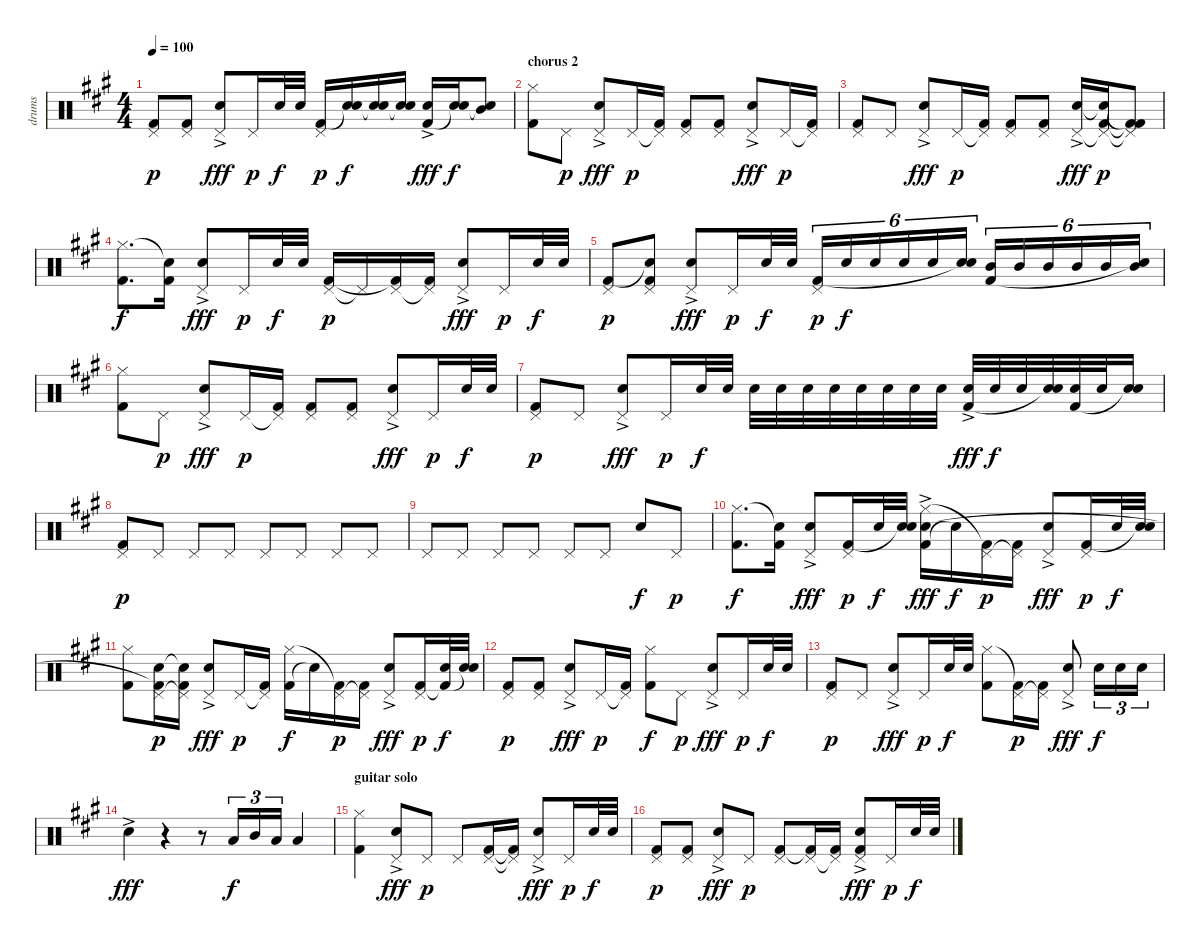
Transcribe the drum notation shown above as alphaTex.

\track ("drums" "drums") {instrument percussion}
\staff {score}
\articulation defaults
\ts (4 4)
\tempo 100
\clef neutral
\ks a
("Pedal Hi-Hat (hit)" "Kick (hit) 2").8{dy p} ("Pedal Hi-Hat (hit)" "Kick (hit) 2").8 ("Pedal Hi-Hat (hit)" "Snare (hit) 2"{ac}).8{dy fff} "Pedal Hi-Hat (hit)".16{dy p} "Snare (hit) 2".32{dy f} "Snare (hit) 2".32 ("Pedal Hi-Hat (hit)" "Kick (hit) 2").16{dy p} ("Snare (hit) 2" "Snare (hit)"{t}).16{dy f} ("Snare (hit) 2" "Snare (hit)"{t}).16 ("Snare (hit) 2" "Snare (hit)"{t}).16 ("Snare (hit) 2"{ac} "Kick (hit) 2").16{dy fff} ("Snare (hit) 2" "Snare (hit)"{t}).16{dy f} ("Mid Tom (hit)" "Snare (hit)"{t}).8 |
\section ("" "chorus 2")
("Hi-Hat (closed)" "Kick (hit) 2").8 "Pedal Hi-Hat (hit)".8{dy p} ("Pedal Hi-Hat (hit)" "Snare (hit) 2"{ac}).8{dy fff} "Pedal Hi-Hat (hit)".16{dy p} ("Pedal Hi-Hat (hit)"{t} "Kick (hit) 2").16 ("Pedal Hi-Hat (hit)" "Kick (hit) 2").8 ("Pedal Hi-Hat (hit)" "Kick (hit) 2").8 ("Pedal Hi-Hat (hit)" "Snare (hit) 2"{ac}).8{dy fff} "Pedal Hi-Hat (hit)".16{dy p} ("Pedal Hi-Hat (hit)"{t} "Kick (hit) 2").16 |
("Pedal Hi-Hat (hit)" "Kick (hit) 2").8 "Pedal Hi-Hat (hit)".8 ("Pedal Hi-Hat (hit)" "Snare (hit) 2"{ac}).8{dy fff} "Pedal Hi-Hat (hit)".16{dy p} ("Pedal Hi-Hat (hit)"{t} "Kick (hit) 2").16 ("Pedal Hi-Hat (hit)" "Kick (hit) 2").8 ("Pedal Hi-Hat (hit)" "Kick (hit) 2").8 ("Pedal Hi-Hat (hit)" "Snare (hit) 2"{ac}).16{dy fff} ("Pedal Hi-Hat (hit)"{t} "Snare (hit)"{t} "Kick (hit) 2").16{dy p} ("Pedal Hi-Hat (hit)"{t} "Kick (hit) 2"{t} "Kick (hit) 2"{t}).8 |
("Hi-Hat (closed)" "Kick (hit) 2").8{d dy f} ("Snare (hit)"{t} "Kick (hit) 2").16 ("Pedal Hi-Hat (hit)" "Snare (hit) 2"{ac}).8{dy fff} "Pedal Hi-Hat (hit)".16{dy p} "Snare (hit) 2".32{dy f} "Snare (hit) 2".32 ("Pedal Hi-Hat (hit)" "Kick (hit) 2").16{dy p} "Pedal Hi-Hat (hit)"{t}.16 ("Pedal Hi-Hat (hit)" "Kick (hit) 2"{t}).16 ("Pedal Hi-Hat (hit)"{t} "Kick (hit) 2").16 ("Pedal Hi-Hat (hit)" "Snare (hit) 2"{ac}).8{dy fff} "Pedal Hi-Hat (hit)".16{dy p} "Snare (hit) 2".32{dy f} "Snare (hit) 2".32 |
("Pedal Hi-Hat (hit)" "Kick (hit) 2").8{dy p} ("Pedal Hi-Hat (hit)" "Snare (hit)"{t} "Kick (hit) 2").8 ("Pedal Hi-Hat (hit)" "Snare (hit) 2"{ac}).8{dy fff} "Pedal Hi-Hat (hit)".16{dy p} "Snare (hit) 2".32{dy f} "Snare (hit) 2".32 ("Pedal Hi-Hat (hit)" "Kick (hit) 2").16{tu (6 4) dy p} "Snare (hit) 2".16{tu (6 4) dy f} "Snare (hit) 2".16{tu (6 4)} "Snare (hit) 2".16{tu (6 4)} "Snare (hit) 2".16{tu (6 4)} ("Snare (hit) 2" "Snare (hit)"{t}).16{tu (6 4)} ("Mid Tom (hit)" "Kick (hit) 2").16{tu (6 4)} "Mid Tom (hit)".16{tu (6 4)} "Mid Tom (hit)".16{tu (6 4)} "Mid Tom (hit)".16{tu (6 4)} "Mid Tom (hit)".16{tu (6 4)} ("Mid Tom (hit)" "Snare (hit)"{t}).16{tu (6 4)} |
("Hi-Hat (closed)" "Kick (hit) 2").8 "Pedal Hi-Hat (hit)".8{dy p} ("Pedal Hi-Hat (hit)" "Snare (hit) 2"{ac}).8{dy fff} "Pedal Hi-Hat (hit)".16{dy p} ("Pedal Hi-Hat (hit)"{t} "Kick (hit) 2").16 ("Pedal Hi-Hat (hit)" "Kick (hit) 2").8 ("Pedal Hi-Hat (hit)" "Kick (hit) 2").8 ("Pedal Hi-Hat (hit)" "Snare (hit) 2"{ac}).8{dy fff} "Pedal Hi-Hat (hit)".16{dy p} "Snare (hit) 2".32{dy f} "Snare (hit) 2".32 |
("Pedal Hi-Hat (hit)" "Kick (hit) 2").8{dy p} "Pedal Hi-Hat (hit)".8 ("Pedal Hi-Hat (hit)" "Snare (hit) 2"{ac}).8{dy fff} "Pedal Hi-Hat (hit)".16{dy p} "Snare (hit) 2".32{dy f} "Snare (hit) 2".32 "Snare (hit) 2".32 "Snare (hit) 2".32 "Snare (hit) 2".32 "Snare (hit) 2".32 "Snare (hit) 2".32 "Snare (hit) 2".32 "Snare (hit) 2".32 "Snare (hit) 2".32 ("Snare (hit) 2"{ac} "Kick (hit) 2").32{dy fff} "Snare (hit) 2".32{dy f} "Snare (hit) 2".32 ("Snare (hit) 2" "Snare (hit)"{t}).32 ("Snare (hit) 2" "Kick (hit) 2").32 "Snare (hit) 2".32 ("Snare (hit) 2" "Snare (hit)"{t}).16 |
("Pedal Hi-Hat (hit)" "Kick (hit) 2").8{dy p} "Pedal Hi-Hat (hit)".8 "Pedal Hi-Hat (hit)".8 "Pedal Hi-Hat (hit)".8 "Pedal Hi-Hat (hit)".8 "Pedal Hi-Hat (hit)".8 "Pedal Hi-Hat (hit)".8 "Pedal Hi-Hat (hit)".8 |
"Pedal Hi-Hat (hit)".8 "Pedal Hi-Hat (hit)".8 "Pedal Hi-Hat (hit)".8 "Pedal Hi-Hat (hit)".8 "Pedal Hi-Hat (hit)".8 "Pedal Hi-Hat (hit)".8 "Snare (hit) 2".8{dy f} "Pedal Hi-Hat (hit)".8{dy p} |
("Hi-Hat (closed)" "Kick (hit) 2").8{d dy f} ("Snare (hit)"{t} "Kick (hit) 2").16 ("Pedal Hi-Hat (hit)" "Snare (hit) 2"{ac}).8{dy fff} ("Pedal Hi-Hat (hit)" "Kick (hit) 2").16{dy p} "Snare (hit) 2".32{dy f} ("Snare (hit) 2" "Snare (hit)"{t}).32 ("Kick (hit) 2" "Hi-Hat (closed)"{ac} "Snare (hit) 2").16{dy fff} "Snare (hit)"{t}.16{dy f} ("Pedal Hi-Hat (hit)" "Kick (hit) 2"{t}).16{dy p} ("Pedal Hi-Hat (hit)"{t} "Kick (hit) 2").16 ("Pedal Hi-Hat (hit)" "Snare (hit) 2"{ac}).8{dy fff} ("Pedal Hi-Hat (hit)" "Kick (hit) 2").16{dy p} "Snare (hit) 2".32{dy f} ("Snare (hit) 2" "Snare (hit)"{t}).32 |
("Hi-Hat (closed)" "Kick (hit) 2").8 ("Pedal Hi-Hat (hit)" "Snare (hit) 2" "Kick (hit) 2"{t}).16{dy p} ("Pedal Hi-Hat (hit)"{t} "Snare (hit) 2"{t} "Kick (hit) 2").16 ("Pedal Hi-Hat (hit)" "Snare (hit) 2"{ac}).8{dy fff} "Pedal Hi-Hat (hit)".16{dy p} ("Pedal Hi-Hat (hit)"{t} "Kick (hit) 2").16 ("Kick (hit) 2" "Hi-Hat (closed)").16{dy f} "Snare (hit)"{t}.16 ("Pedal Hi-Hat (hit)" "Kick (hit) 2"{t}).16{dy p} ("Pedal Hi-Hat (hit)"{t} "Kick (hit) 2").16 ("Pedal Hi-Hat (hit)" "Snare (hit) 2"{ac}).8{dy fff} ("Pedal Hi-Hat (hit)" "Kick (hit) 2").16{dy p} ("Snare (hit) 2" "Kick (hit) 2"{t}).32{dy f} ("Snare (hit) 2" "Snare (hit)"{t}).32 |
("Pedal Hi-Hat (hit)" "Kick (hit) 2").8{dy p} ("Pedal Hi-Hat (hit)" "Kick (hit) 2").8 ("Pedal Hi-Hat (hit)" "Snare (hit) 2"{ac}).8{dy fff} "Pedal Hi-Hat (hit)".16{dy p} ("Pedal Hi-Hat (hit)"{t} "Kick (hit) 2").16 ("Kick (hit) 2" "Hi-Hat (closed)").8{dy f} "Pedal Hi-Hat (hit)".8{dy p} ("Pedal Hi-Hat (hit)" "Snare (hit) 2"{ac}).8{dy fff} "Pedal Hi-Hat (hit)".16{dy p} "Snare (hit) 2".32{dy f} "Snare (hit) 2".32 |
("Pedal Hi-Hat (hit)" "Kick (hit) 2").8{dy p} "Pedal Hi-Hat (hit)".8 ("Pedal Hi-Hat (hit)" "Snare (hit) 2"{ac}).8{dy fff} "Pedal Hi-Hat (hit)".16{dy p} "Snare (hit) 2".32{dy f} "Snare (hit) 2".32 ("Kick (hit) 2" "Hi-Hat (closed)").8 ("Pedal Hi-Hat (hit)" "Kick (hit) 2"{t}).16{dy p} ("Pedal Hi-Hat (hit)"{t} "Kick (hit) 2").16 ("Pedal Hi-Hat (hit)" "Snare (hit) 2"{ac}).8{dy fff} "Snare (hit) 2".16{tu (3 2) dy f} "Snare (hit) 2".16{tu (3 2)} "Snare (hit) 2".16{tu (3 2)} |
"Snare (hit) 2"{ac}.4{dy fff} r.4 r.8 "Low Tom (hit)".16{tu (3 2) dy f} "Mid Tom (hit)".16{tu (3 2)} "Low Tom (hit)".16{tu (3 2)} "Low Tom (hit)".4 |
\section ("" "guitar solo")
("Hi-Hat (closed)" "Kick (hit) 2").4 ("Pedal Hi-Hat (hit)" "Snare (hit) 2"{ac}).8{dy fff} "Pedal Hi-Hat (hit)".8{dy p} "Pedal Hi-Hat (hit)".8 ("Pedal Hi-Hat (hit)" "Kick (hit) 2").16 ("Pedal Hi-Hat (hit)"{t} "Kick (hit) 2"{t}).16 ("Pedal Hi-Hat (hit)" "Snare (hit) 2"{ac}).8{dy fff} "Pedal Hi-Hat (hit)".16{dy p} "Snare (hit) 2".32{dy f} "Snare (hit) 2".32 |
("Pedal Hi-Hat (hit)" "Kick (hit) 2").8{dy p} ("Pedal Hi-Hat (hit)" "Kick (hit) 2").8 ("Pedal Hi-Hat (hit)" "Snare (hit) 2"{ac}).8{dy fff} "Pedal Hi-Hat (hit)".8{dy p} ("Pedal Hi-Hat (hit)" "Kick (hit) 2").8 ("Pedal Hi-Hat (hit)" "Kick (hit) 2"{t}).16 ("Pedal Hi-Hat (hit)"{t} "Kick (hit) 2").16 ("Pedal Hi-Hat (hit)" "Kick (hit) 2"{ac} "Snare (hit) 2").8{dy fff} "Pedal Hi-Hat (hit)".16{dy p} "Snare (hit) 2".32{dy f} "Snare (hit) 2".32
